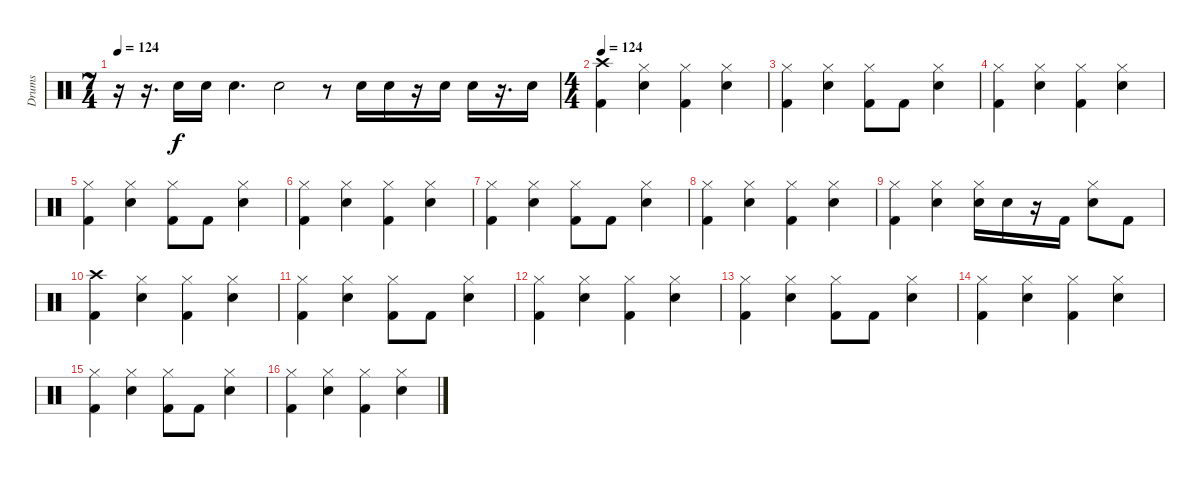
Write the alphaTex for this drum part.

\track ("Drums" "Drums") {instrument percussion}
\staff {score}
\articulation defaults
\ts (7 4)
\tempo 124
\tempo 136
\tempo 124
\clef neutral
\ks c
r.16{dy f} r.16{d} "Snare (hit) 2".16 "Snare (hit) 2".16 "Snare (hit) 2".4{d} "Snare (hit) 2".2 r.8 "Snare (hit) 2".16 "Snare (hit) 2".16 r.16 "Snare (hit) 2".16 "Snare (hit) 2".16 r.16{d} "Snare (hit) 2".16 |
\ts (4 4)
\tempo 124
("Crash high (hit)" "Kick (hit) 2").4 ("Hi-Hat (closed)" "Snare (hit) 2").4 ("Hi-Hat (closed)" "Kick (hit) 2").4 ("Hi-Hat (closed)" "Snare (hit) 2").4 |
("Hi-Hat (closed)" "Kick (hit) 2").4 ("Hi-Hat (closed)" "Snare (hit) 2").4 ("Hi-Hat (closed)" "Kick (hit) 2").8 "Kick (hit) 2".8 ("Hi-Hat (closed)" "Snare (hit) 2").4 |
("Hi-Hat (closed)" "Kick (hit) 2").4 ("Hi-Hat (closed)" "Snare (hit) 2").4 ("Hi-Hat (closed)" "Kick (hit) 2").4 ("Hi-Hat (closed)" "Snare (hit) 2").4 |
("Hi-Hat (closed)" "Kick (hit) 2").4 ("Hi-Hat (closed)" "Snare (hit) 2").4 ("Hi-Hat (closed)" "Kick (hit) 2").8 "Kick (hit) 2".8 ("Hi-Hat (closed)" "Snare (hit) 2").4 |
("Hi-Hat (closed)" "Kick (hit) 2").4 ("Hi-Hat (closed)" "Snare (hit) 2").4 ("Hi-Hat (closed)" "Kick (hit) 2").4 ("Hi-Hat (closed)" "Snare (hit) 2").4 |
("Hi-Hat (closed)" "Kick (hit) 2").4 ("Hi-Hat (closed)" "Snare (hit) 2").4 ("Hi-Hat (closed)" "Kick (hit) 2").8 "Kick (hit) 2".8 ("Hi-Hat (closed)" "Snare (hit) 2").4 |
("Hi-Hat (closed)" "Kick (hit) 2").4 ("Hi-Hat (closed)" "Snare (hit) 2").4 ("Hi-Hat (closed)" "Kick (hit) 2").4 ("Hi-Hat (closed)" "Snare (hit) 2").4 |
("Hi-Hat (closed)" "Kick (hit) 2").4 ("Hi-Hat (closed)" "Snare (hit) 2").4 ("Hi-Hat (closed)" "Snare (hit) 2").16 "Snare (hit) 2".16 r.16 "Kick (hit) 2".16 ("Hi-Hat (closed)" "Snare (hit) 2").8 "Kick (hit) 2".8 |
("Crash high (hit)" "Kick (hit) 2").4 ("Hi-Hat (closed)" "Snare (hit) 2").4 ("Hi-Hat (closed)" "Kick (hit) 2").4 ("Hi-Hat (closed)" "Snare (hit) 2").4 |
("Hi-Hat (closed)" "Kick (hit) 2").4 ("Hi-Hat (closed)" "Snare (hit) 2").4 ("Hi-Hat (closed)" "Kick (hit) 2").8 "Kick (hit) 2".8 ("Hi-Hat (closed)" "Snare (hit) 2").4 |
("Hi-Hat (closed)" "Kick (hit) 2").4 ("Hi-Hat (closed)" "Snare (hit) 2").4 ("Hi-Hat (closed)" "Kick (hit) 2").4 ("Hi-Hat (closed)" "Snare (hit) 2").4 |
("Hi-Hat (closed)" "Kick (hit) 2").4 ("Hi-Hat (closed)" "Snare (hit) 2").4 ("Hi-Hat (closed)" "Kick (hit) 2").8 "Kick (hit) 2".8 ("Hi-Hat (closed)" "Snare (hit) 2").4 |
("Hi-Hat (closed)" "Kick (hit) 2").4 ("Hi-Hat (closed)" "Snare (hit) 2").4 ("Hi-Hat (closed)" "Kick (hit) 2").4 ("Hi-Hat (closed)" "Snare (hit) 2").4 |
("Hi-Hat (closed)" "Kick (hit) 2").4 ("Hi-Hat (closed)" "Snare (hit) 2").4 ("Hi-Hat (closed)" "Kick (hit) 2").8 "Kick (hit) 2".8 ("Hi-Hat (closed)" "Snare (hit) 2").4 |
("Hi-Hat (closed)" "Kick (hit) 2").4 ("Hi-Hat (closed)" "Snare (hit) 2").4 ("Hi-Hat (closed)" "Kick (hit) 2").4 ("Hi-Hat (closed)" "Snare (hit) 2").4
